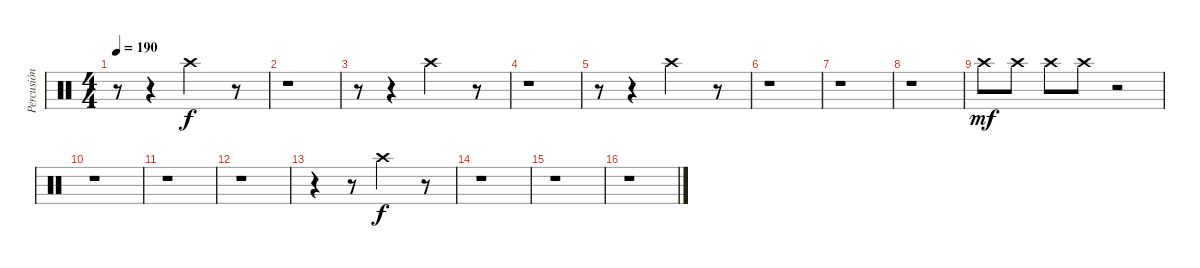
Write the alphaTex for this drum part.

\track ("Percusión" "Percusión") {instrument percussion}
\staff {score}
\articulation defaults
\ts (4 4)
\tempo 190
\clef neutral
\ks c
r.8{dy f} r.4 "Crash high (hit)".2 r.8 |
r.1 |
r.8 r.4 "Crash high (hit)".2 r.8 |
r.1 |
r.8 r.4 "Crash high (hit)".2 r.8 |
r.1 |
r.1 |
r.1 |
"Crash high (hit)".8{dy mf} "Crash high (hit)".8 "Crash high (hit)".8 "Crash high (hit)".8 r.2 |
r.1 |
r.1 |
r.1 |
r.4 r.8 "Crash high (hit)".2{dy f} r.8 |
r.1 |
r.1 |
r.1
